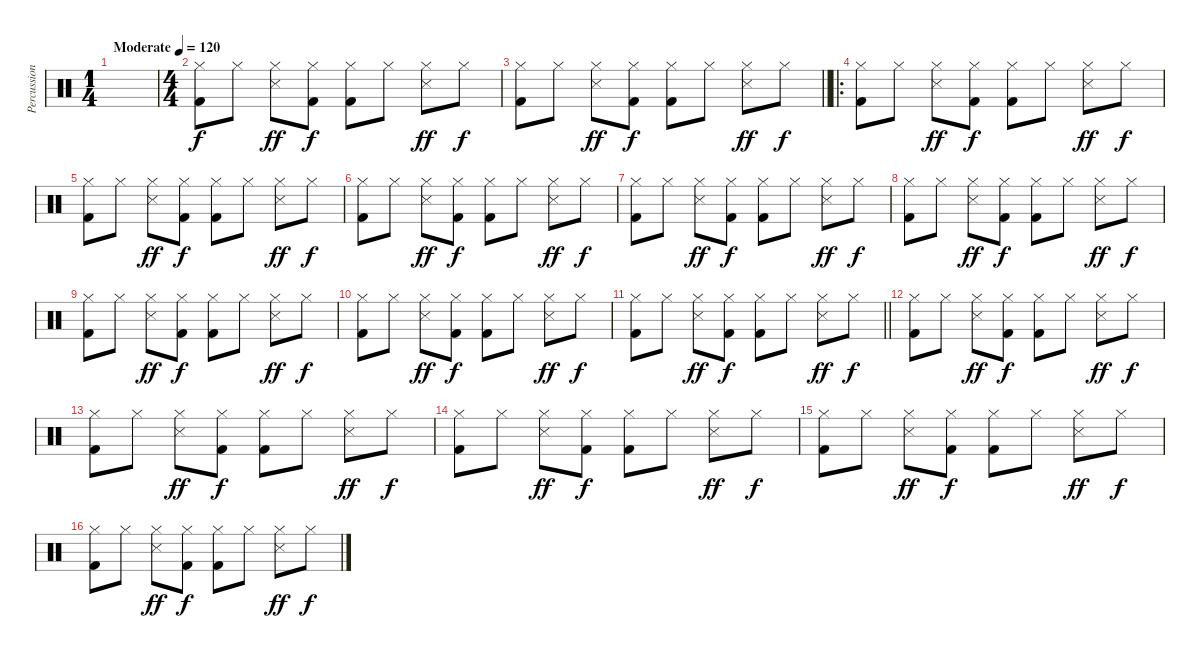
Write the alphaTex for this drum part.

\track ("Percussion" "Percussion") {instrument percussion}
\staff {score}
\articulation defaults
\ts (1 4)
\tempo (120 "Moderate")
\clef neutral
\ks c
|
\ts (4 4)
("Hi-Hat (closed)" "Kick (hit) 2").8 "Hi-Hat (closed)".8 ("Hi-Hat (closed)" "Snare (side stick) 3").8{dy ff} ("Hi-Hat (closed)" "Kick (hit) 2").8{dy f} ("Hi-Hat (closed)" "Kick (hit) 2").8 "Hi-Hat (closed)".8 ("Hi-Hat (closed)" "Snare (side stick) 3").8{dy ff} "Hi-Hat (closed)".8{dy f} |
\barLineRight lightlight
("Hi-Hat (closed)" "Kick (hit) 2").8 "Hi-Hat (closed)".8 ("Hi-Hat (closed)" "Snare (side stick) 3").8{dy ff} ("Hi-Hat (closed)" "Kick (hit) 2").8{dy f} ("Hi-Hat (closed)" "Kick (hit) 2").8 "Hi-Hat (closed)".8 ("Hi-Hat (closed)" "Snare (side stick) 3").8{dy ff} "Hi-Hat (closed)".8{dy f} |
\ro
("Hi-Hat (closed)" "Kick (hit) 2").8 "Hi-Hat (closed)".8 ("Hi-Hat (closed)" "Snare (side stick) 3").8{dy ff} ("Hi-Hat (closed)" "Kick (hit) 2").8{dy f} ("Hi-Hat (closed)" "Kick (hit) 2").8 "Hi-Hat (closed)".8 ("Hi-Hat (closed)" "Snare (side stick) 3").8{dy ff} "Hi-Hat (closed)".8{dy f} |
("Hi-Hat (closed)" "Kick (hit) 2").8 "Hi-Hat (closed)".8 ("Hi-Hat (closed)" "Snare (side stick) 3").8{dy ff} ("Hi-Hat (closed)" "Kick (hit) 2").8{dy f} ("Hi-Hat (closed)" "Kick (hit) 2").8 "Hi-Hat (closed)".8 ("Hi-Hat (closed)" "Snare (side stick) 3").8{dy ff} "Hi-Hat (closed)".8{dy f} |
("Hi-Hat (closed)" "Kick (hit) 2").8 "Hi-Hat (closed)".8 ("Hi-Hat (closed)" "Snare (side stick) 3").8{dy ff} ("Hi-Hat (closed)" "Kick (hit) 2").8{dy f} ("Hi-Hat (closed)" "Kick (hit) 2").8 "Hi-Hat (closed)".8 ("Hi-Hat (closed)" "Snare (side stick) 3").8{dy ff} "Hi-Hat (closed)".8{dy f} |
("Hi-Hat (closed)" "Kick (hit) 2").8 "Hi-Hat (closed)".8 ("Hi-Hat (closed)" "Snare (side stick) 3").8{dy ff} ("Hi-Hat (closed)" "Kick (hit) 2").8{dy f} ("Hi-Hat (closed)" "Kick (hit) 2").8 "Hi-Hat (closed)".8 ("Hi-Hat (closed)" "Snare (side stick) 3").8{dy ff} "Hi-Hat (closed)".8{dy f} |
("Hi-Hat (closed)" "Kick (hit) 2").8 "Hi-Hat (closed)".8 ("Hi-Hat (closed)" "Snare (side stick) 3").8{dy ff} ("Hi-Hat (closed)" "Kick (hit) 2").8{dy f} ("Hi-Hat (closed)" "Kick (hit) 2").8 "Hi-Hat (closed)".8 ("Hi-Hat (closed)" "Snare (side stick) 3").8{dy ff} "Hi-Hat (closed)".8{dy f} |
("Hi-Hat (closed)" "Kick (hit) 2").8 "Hi-Hat (closed)".8 ("Hi-Hat (closed)" "Snare (side stick) 3").8{dy ff} ("Hi-Hat (closed)" "Kick (hit) 2").8{dy f} ("Hi-Hat (closed)" "Kick (hit) 2").8 "Hi-Hat (closed)".8 ("Hi-Hat (closed)" "Snare (side stick) 3").8{dy ff} "Hi-Hat (closed)".8{dy f} |
("Hi-Hat (closed)" "Kick (hit) 2").8 "Hi-Hat (closed)".8 ("Hi-Hat (closed)" "Snare (side stick) 3").8{dy ff} ("Hi-Hat (closed)" "Kick (hit) 2").8{dy f} ("Hi-Hat (closed)" "Kick (hit) 2").8 "Hi-Hat (closed)".8 ("Hi-Hat (closed)" "Snare (side stick) 3").8{dy ff} "Hi-Hat (closed)".8{dy f} |
\barLineRight lightlight
("Hi-Hat (closed)" "Kick (hit) 2").8 "Hi-Hat (closed)".8 ("Hi-Hat (closed)" "Snare (side stick) 3").8{dy ff} ("Hi-Hat (closed)" "Kick (hit) 2").8{dy f} ("Hi-Hat (closed)" "Kick (hit) 2").8 "Hi-Hat (closed)".8 ("Hi-Hat (closed)" "Snare (side stick) 3").8{dy ff} "Hi-Hat (closed)".8{dy f} |
("Hi-Hat (closed)" "Kick (hit) 2").8 "Hi-Hat (closed)".8 ("Hi-Hat (closed)" "Snare (side stick) 3").8{dy ff} ("Hi-Hat (closed)" "Kick (hit) 2").8{dy f} ("Hi-Hat (closed)" "Kick (hit) 2").8 "Hi-Hat (closed)".8 ("Hi-Hat (closed)" "Snare (side stick) 3").8{dy ff} "Hi-Hat (closed)".8{dy f} |
("Hi-Hat (closed)" "Kick (hit) 2").8 "Hi-Hat (closed)".8 ("Hi-Hat (closed)" "Snare (side stick) 3").8{dy ff} ("Hi-Hat (closed)" "Kick (hit) 2").8{dy f} ("Hi-Hat (closed)" "Kick (hit) 2").8 "Hi-Hat (closed)".8 ("Hi-Hat (closed)" "Snare (side stick) 3").8{dy ff} "Hi-Hat (closed)".8{dy f} |
("Hi-Hat (closed)" "Kick (hit) 2").8 "Hi-Hat (closed)".8 ("Hi-Hat (closed)" "Snare (side stick) 3").8{dy ff} ("Hi-Hat (closed)" "Kick (hit) 2").8{dy f} ("Hi-Hat (closed)" "Kick (hit) 2").8 "Hi-Hat (closed)".8 ("Hi-Hat (closed)" "Snare (side stick) 3").8{dy ff} "Hi-Hat (closed)".8{dy f} |
("Hi-Hat (closed)" "Kick (hit) 2").8 "Hi-Hat (closed)".8 ("Hi-Hat (closed)" "Snare (side stick) 3").8{dy ff} ("Hi-Hat (closed)" "Kick (hit) 2").8{dy f} ("Hi-Hat (closed)" "Kick (hit) 2").8 "Hi-Hat (closed)".8 ("Hi-Hat (closed)" "Snare (side stick) 3").8{dy ff} "Hi-Hat (closed)".8{dy f} |
("Hi-Hat (closed)" "Kick (hit) 2").8 "Hi-Hat (closed)".8 ("Hi-Hat (closed)" "Snare (side stick) 3").8{dy ff} ("Hi-Hat (closed)" "Kick (hit) 2").8{dy f} ("Hi-Hat (closed)" "Kick (hit) 2").8 "Hi-Hat (closed)".8 ("Hi-Hat (closed)" "Snare (side stick) 3").8{dy ff} "Hi-Hat (closed)".8{dy f}
